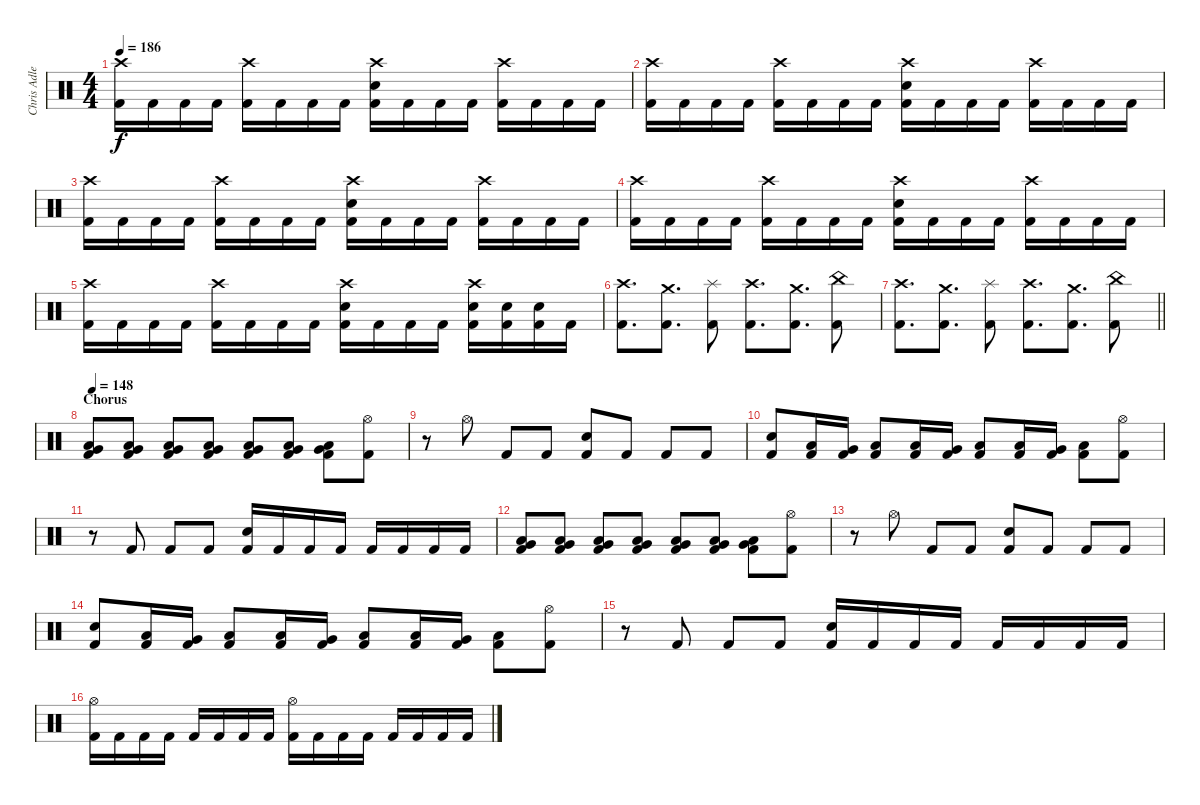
\track ("Chris Adler (Drums)" "Chris Adle") {instrument percussion}
\staff {score}
\articulation defaults
\ts (4 4)
\tempo 186
\clef neutral
\ks c
("Crash high (hit)" "Kick (hit) 2").16{dy f} "Kick (hit) 2".16 "Kick (hit) 2".16 "Kick (hit) 2".16 ("Crash high (hit)" "Kick (hit) 2").16 "Kick (hit) 2".16 "Kick (hit) 2".16 "Kick (hit) 2".16 ("Crash high (hit)" "Snare (hit) 2" "Kick (hit) 2").16 "Kick (hit) 2".16 "Kick (hit) 2".16 "Kick (hit) 2".16 ("Crash high (hit)" "Kick (hit) 2").16 "Kick (hit) 2".16 "Kick (hit) 2".16 "Kick (hit) 2".16 |
("Crash high (hit)" "Kick (hit) 2").16 "Kick (hit) 2".16 "Kick (hit) 2".16 "Kick (hit) 2".16 ("Crash high (hit)" "Kick (hit) 2").16 "Kick (hit) 2".16 "Kick (hit) 2".16 "Kick (hit) 2".16 ("Crash high (hit)" "Snare (hit) 2" "Kick (hit) 2").16 "Kick (hit) 2".16 "Kick (hit) 2".16 "Kick (hit) 2".16 ("Crash high (hit)" "Kick (hit) 2").16 "Kick (hit) 2".16 "Kick (hit) 2".16 "Kick (hit) 2".16 |
("Crash high (hit)" "Kick (hit) 2").16 "Kick (hit) 2".16 "Kick (hit) 2".16 "Kick (hit) 2".16 ("Crash high (hit)" "Kick (hit) 2").16 "Kick (hit) 2".16 "Kick (hit) 2".16 "Kick (hit) 2".16 ("Crash high (hit)" "Snare (hit) 2" "Kick (hit) 2").16 "Kick (hit) 2".16 "Kick (hit) 2".16 "Kick (hit) 2".16 ("Crash high (hit)" "Kick (hit) 2").16 "Kick (hit) 2".16 "Kick (hit) 2".16 "Kick (hit) 2".16 |
("Crash high (hit)" "Kick (hit) 2").16 "Kick (hit) 2".16 "Kick (hit) 2".16 "Kick (hit) 2".16 ("Crash high (hit)" "Kick (hit) 2").16 "Kick (hit) 2".16 "Kick (hit) 2".16 "Kick (hit) 2".16 ("Crash high (hit)" "Snare (hit) 2" "Kick (hit) 2").16 "Kick (hit) 2".16 "Kick (hit) 2".16 "Kick (hit) 2".16 ("Crash high (hit)" "Kick (hit) 2").16 "Kick (hit) 2".16 "Kick (hit) 2".16 "Kick (hit) 2".16 |
("Crash high (hit)" "Kick (hit) 2").16 "Kick (hit) 2".16 "Kick (hit) 2".16 "Kick (hit) 2".16 ("Crash high (hit)" "Kick (hit) 2").16 "Kick (hit) 2".16 "Kick (hit) 2".16 "Kick (hit) 2".16 ("Crash high (hit)" "Snare (hit) 2" "Kick (hit) 2").16 "Kick (hit) 2".16 "Kick (hit) 2".16 "Kick (hit) 2".16 ("Crash high (hit)" "Snare (hit) 2" "Kick (hit) 2").16 ("Snare (hit) 2" "Kick (hit) 2").16 ("Snare (hit) 2" "Kick (hit) 2").16 "Kick (hit) 2".16 |
("Crash high (hit)" "Kick (hit) 2").8{d} ("Crash medium (hit)" "Kick (hit) 2").8{d} ("Splash (hit)" "Kick (hit) 2").8 ("Crash high (hit)" "Kick (hit) 2").8{d} ("Crash medium (hit)" "Kick (hit) 2").8{d} ("China (hit)" "Kick (hit) 2").8 |
\barLineRight lightlight
("Crash high (hit)" "Kick (hit) 2").8{d} ("Crash medium (hit)" "Kick (hit) 2").8{d} ("Splash (hit)" "Kick (hit) 2").8 ("Crash high (hit)" "Kick (hit) 2").8{d} ("Crash medium (hit)" "Kick (hit) 2").8{d} ("China (hit)" "Kick (hit) 2").8 |
\section ("" "Chorus")
\tempo 148
("Very Low Tom (hit)" "Low Floor Tom (hit)" "Kick (hit) 2").8 ("Very Low Tom (hit)" "Low Floor Tom (hit)" "Kick (hit) 2").8 ("Very Low Tom (hit)" "Low Floor Tom (hit)" "Kick (hit) 2").8 ("Very Low Tom (hit)" "Low Floor Tom (hit)" "Kick (hit) 2").8 ("Very Low Tom (hit)" "Low Floor Tom (hit)" "Kick (hit) 2").8 ("Very Low Tom (hit)" "Low Floor Tom (hit)" "Kick (hit) 2").8 ("Very Low Tom (hit)" "Low Floor Tom (hit)" "Kick (hit) 2").8 ("Hi-Hat (open)" "Kick (hit) 2").8 |
r.8 "Hi-Hat (open)".8 "Kick (hit) 2".8 "Kick (hit) 2".8 ("Snare (hit) 2" "Kick (hit) 2").8 "Kick (hit) 2".8 "Kick (hit) 2".8 "Kick (hit) 2".8 |
("Snare (hit) 2" "Kick (hit) 2").8 ("Low Tom (hit)" "Kick (hit) 2").16 ("Very Low Tom (hit)" "Kick (hit) 2").16 ("Low Floor Tom (hit)" "Kick (hit) 2").8 ("Low Tom (hit)" "Kick (hit) 2").16 ("Very Low Tom (hit)" "Kick (hit) 2").16 ("Low Floor Tom (hit)" "Kick (hit) 2").8 ("Low Tom (hit)" "Kick (hit) 2").16 ("Very Low Tom (hit)" "Kick (hit) 2").16 ("Low Floor Tom (hit)" "Kick (hit) 2").8 ("Hi-Hat (open)" "Kick (hit) 2").8 |
r.8 "Kick (hit) 2".8 "Kick (hit) 2".8 "Kick (hit) 2".8 ("Snare (hit) 2" "Kick (hit) 2").16 "Kick (hit) 2".16 "Kick (hit) 2".16 "Kick (hit) 2".16 "Kick (hit) 2".16 "Kick (hit) 2".16 "Kick (hit) 2".16 "Kick (hit) 2".16 |
("Very Low Tom (hit)" "Low Floor Tom (hit)" "Kick (hit) 2").8 ("Very Low Tom (hit)" "Low Floor Tom (hit)" "Kick (hit) 2").8 ("Very Low Tom (hit)" "Low Floor Tom (hit)" "Kick (hit) 2").8 ("Very Low Tom (hit)" "Low Floor Tom (hit)" "Kick (hit) 2").8 ("Very Low Tom (hit)" "Low Floor Tom (hit)" "Kick (hit) 2").8 ("Very Low Tom (hit)" "Low Floor Tom (hit)" "Kick (hit) 2").8 ("Very Low Tom (hit)" "Low Floor Tom (hit)" "Kick (hit) 2").8 ("Hi-Hat (open)" "Kick (hit) 2").8 |
r.8 "Hi-Hat (open)".8 "Kick (hit) 2".8 "Kick (hit) 2".8 ("Snare (hit) 2" "Kick (hit) 2").8 "Kick (hit) 2".8 "Kick (hit) 2".8 "Kick (hit) 2".8 |
("Snare (hit) 2" "Kick (hit) 2").8 ("Low Tom (hit)" "Kick (hit) 2").16 ("Very Low Tom (hit)" "Kick (hit) 2").16 ("Low Floor Tom (hit)" "Kick (hit) 2").8 ("Low Tom (hit)" "Kick (hit) 2").16 ("Very Low Tom (hit)" "Kick (hit) 2").16 ("Low Floor Tom (hit)" "Kick (hit) 2").8 ("Low Tom (hit)" "Kick (hit) 2").16 ("Very Low Tom (hit)" "Kick (hit) 2").16 ("Low Floor Tom (hit)" "Kick (hit) 2").8 ("Hi-Hat (open)" "Kick (hit) 2").8 |
r.8 "Kick (hit) 2".8 "Kick (hit) 2".8 "Kick (hit) 2".8 ("Snare (hit) 2" "Kick (hit) 2").16 "Kick (hit) 2".16 "Kick (hit) 2".16 "Kick (hit) 2".16 "Kick (hit) 2".16 "Kick (hit) 2".16 "Kick (hit) 2".16 "Kick (hit) 2".16 |
("Hi-Hat (open)" "Kick (hit) 2").16 "Kick (hit) 2".16 "Kick (hit) 2".16 "Kick (hit) 2".16 "Kick (hit) 2".16 "Kick (hit) 2".16 "Kick (hit) 2".16 "Kick (hit) 2".16 ("Hi-Hat (open)" "Kick (hit) 2").16 "Kick (hit) 2".16 "Kick (hit) 2".16 "Kick (hit) 2".16 "Kick (hit) 2".16 "Kick (hit) 2".16 "Kick (hit) 2".16 "Kick (hit) 2".16
